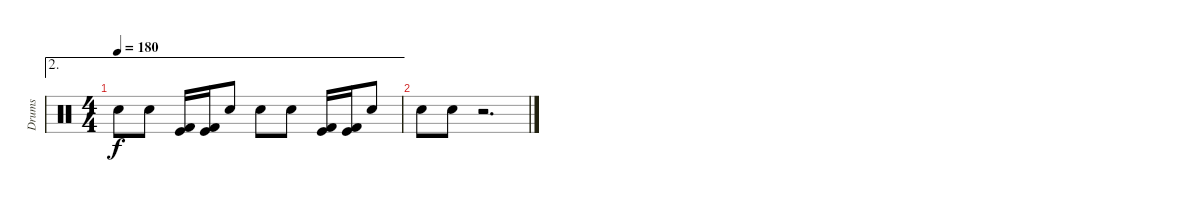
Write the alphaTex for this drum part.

\track ("Drums" "Drums") {instrument percussion}
\staff {score}
\articulation defaults
\ae 2
\ts (4 4)
\tempo 180
\clef neutral
\ks c "Electric Snare (hit)".8{dy f} "Electric Snare (hit)".8
("Kick (hit) 2" "Kick (hit)").16 ("Kick (hit) 2" "Kick (hit)").16 "Electric Snare (hit)".8 "Electric Snare (hit)".8 "Electric Snare (hit)".8 ("Kick (hit) 2" "Kick (hit)").16 ("Kick (hit) 2" "Kick (hit)").16 "Electric Snare (hit)".8 |
"Electric Snare (hit)".8 "Electric Snare (hit)".8 r.2{d}
